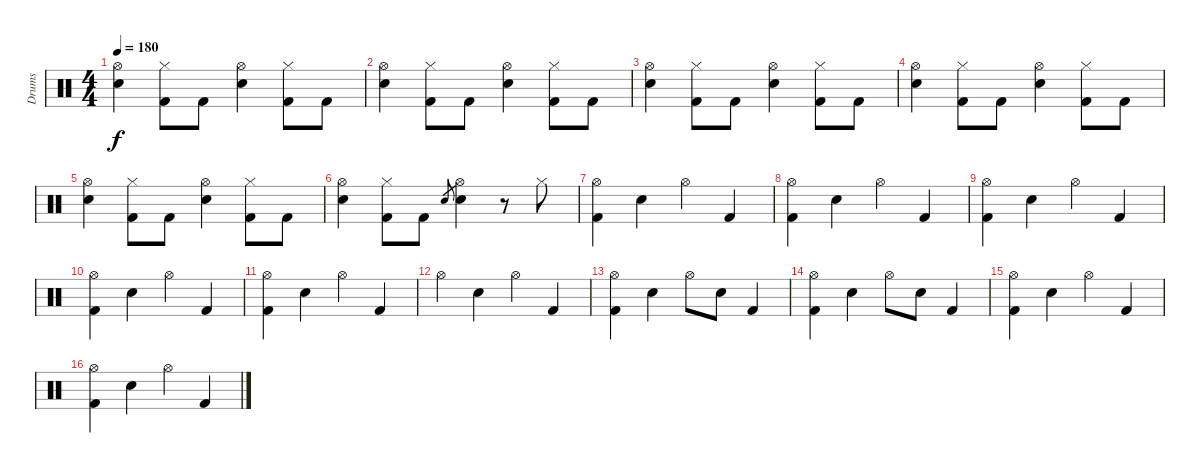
\track ("Drums" "Drums") {instrument percussion}
\staff {score}
\articulation defaults
\ts (4 4)
\tempo 180
\clef neutral
\ks c
("Hi-Hat (open)" "Snare (hit) 2").4{dy f} ("Hi-Hat (closed)" "Kick (hit) 2").8 "Kick (hit) 2".8 ("Hi-Hat (open)" "Snare (hit) 2").4 ("Hi-Hat (closed)" "Kick (hit) 2").8 "Kick (hit) 2".8 |
("Hi-Hat (open)" "Snare (hit) 2").4 ("Hi-Hat (closed)" "Kick (hit) 2").8 "Kick (hit) 2".8 ("Hi-Hat (open)" "Snare (hit) 2").4 ("Hi-Hat (closed)" "Kick (hit) 2").8 "Kick (hit) 2".8 |
("Hi-Hat (open)" "Snare (hit) 2").4 ("Hi-Hat (closed)" "Kick (hit) 2").8 "Kick (hit) 2".8 ("Hi-Hat (open)" "Snare (hit) 2").4 ("Hi-Hat (closed)" "Kick (hit) 2").8 "Kick (hit) 2".8 |
("Hi-Hat (open)" "Snare (hit) 2").4 ("Hi-Hat (closed)" "Kick (hit) 2").8 "Kick (hit) 2".8 ("Hi-Hat (open)" "Snare (hit) 2").4 ("Hi-Hat (closed)" "Kick (hit) 2").8 "Kick (hit) 2".8 |
("Hi-Hat (open)" "Snare (hit) 2").4 ("Hi-Hat (closed)" "Kick (hit) 2").8 "Kick (hit) 2".8 ("Hi-Hat (open)" "Snare (hit) 2").4 ("Hi-Hat (closed)" "Kick (hit) 2").8 "Kick (hit) 2".8 |
("Hi-Hat (open)" "Snare (hit) 2").4 ("Hi-Hat (closed)" "Kick (hit) 2").8 "Kick (hit) 2".8 "Snare (hit) 2".8{gr} ("Hi-Hat (open)" "Snare (hit) 2").4 r.8 "Hi-Hat (closed)".8 |
("Hi-Hat (open)" "Kick (hit) 2").4 "Snare (hit) 2".4 "Hi-Hat (open)".4 "Kick (hit) 2".4 |
("Hi-Hat (open)" "Kick (hit) 2").4 "Snare (hit) 2".4 "Hi-Hat (open)".4 "Kick (hit) 2".4 |
("Hi-Hat (open)" "Kick (hit) 2").4 "Snare (hit) 2".4 "Hi-Hat (open)".4 "Kick (hit) 2".4 |
("Hi-Hat (open)" "Kick (hit) 2").4 "Snare (hit) 2".4 "Hi-Hat (open)".4 "Kick (hit) 2".4 |
("Hi-Hat (open)" "Kick (hit) 2").4 "Snare (hit) 2".4 "Hi-Hat (open)".4 "Kick (hit) 2".4 |
"Hi-Hat (open)".4 "Snare (hit) 2".4 "Hi-Hat (open)".4 "Kick (hit) 2".4 |
("Hi-Hat (open)" "Kick (hit) 2").4 "Snare (hit) 2".4 "Hi-Hat (open)".8 "Snare (hit) 2".8 "Kick (hit) 2".4 |
("Hi-Hat (open)" "Kick (hit) 2").4 "Snare (hit) 2".4 "Hi-Hat (open)".8 "Snare (hit) 2".8 "Kick (hit) 2".4 |
("Hi-Hat (open)" "Kick (hit) 2").4 "Snare (hit) 2".4 "Hi-Hat (open)".4 "Kick (hit) 2".4 |
("Hi-Hat (open)" "Kick (hit) 2").4 "Snare (hit) 2".4 "Hi-Hat (open)".4 "Kick (hit) 2".4
